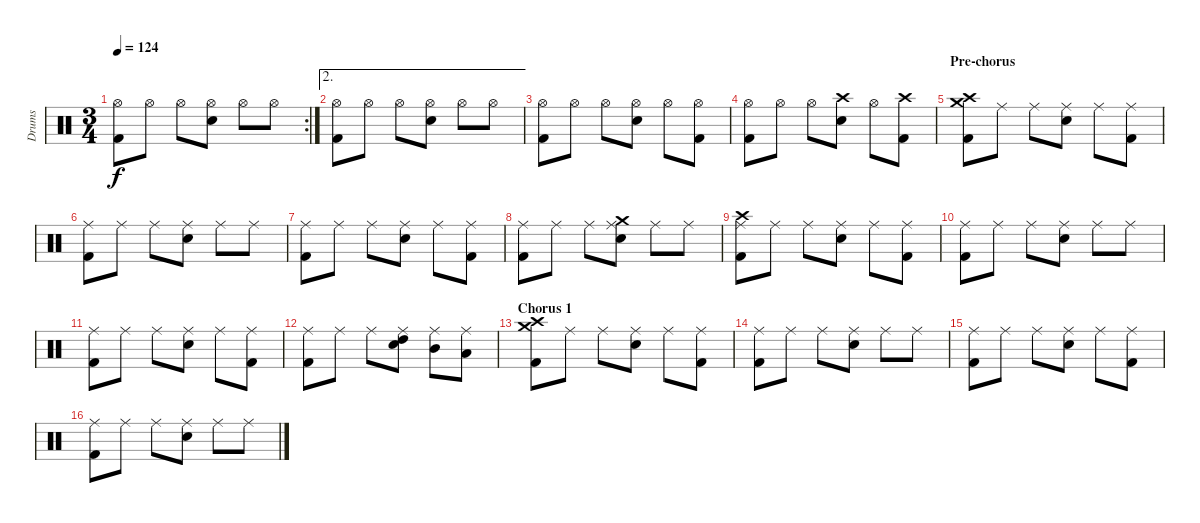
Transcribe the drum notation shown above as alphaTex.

\track ("Drums" "Drums") {instrument percussion}
\staff {score}
\articulation defaults
\rc 2
\ts (3 4)
\tempo 124
\clef neutral
\ks c
("Hi-Hat (open)" "Kick (hit) 2").8{dy f} "Hi-Hat (open)".8 "Hi-Hat (open)".8 ("Hi-Hat (open)" "Electric Snare (hit)").8 "Hi-Hat (open)".8 "Hi-Hat (open)".8 |
\ae 2
("Hi-Hat (open)" "Kick (hit) 2").8 "Hi-Hat (open)".8 "Hi-Hat (open)".8 ("Hi-Hat (open)" "Electric Snare (hit)").8 "Hi-Hat (open)".8 "Hi-Hat (open)".8 |
("Hi-Hat (open)" "Kick (hit) 2").8 "Hi-Hat (open)".8 "Hi-Hat (open)".8 ("Hi-Hat (open)" "Electric Snare (hit)").8 "Hi-Hat (open)".8 ("Hi-Hat (open)" "Kick (hit) 2").8 |
("Hi-Hat (open)" "Kick (hit) 2").8 "Hi-Hat (open)".8 "Hi-Hat (open)".8 ("Crash high (hit)" "Electric Snare (hit)").8 "Hi-Hat (open)".8 ("Crash high (hit)" "Kick (hit) 2").8 |
\section ("" "Pre-chorus")
("Crash medium (hit)" "Crash high (hit)" "Kick (hit) 2").8 "Ride (middle)".8 "Ride (middle)".8 ("Ride (middle)" "Electric Snare (hit)").8 "Ride (middle)".8 ("Ride (middle)" "Kick (hit) 2").8 |
("Ride (middle)" "Kick (hit) 2").8 "Ride (middle)".8 "Ride (middle)".8 ("Ride (middle)" "Electric Snare (hit)").8 "Ride (middle)".8 "Ride (middle)".8 |
("Ride (middle)" "Kick (hit) 2").8 "Ride (middle)".8 "Ride (middle)".8 ("Ride (middle)" "Electric Snare (hit)").8 "Ride (middle)".8 ("Ride (middle)" "Kick (hit) 2").8 |
("Ride (middle)" "Kick (hit) 2").8 "Ride (middle)".8 "Ride (middle)".8 ("Ride (middle)" "Crash medium (hit)" "Electric Snare (hit)").8 "Ride (middle)".8 "Ride (middle)".8 |
("Ride (middle)" "Crash high (hit)" "Kick (hit) 2").8 "Ride (middle)".8 "Ride (middle)".8 ("Ride (middle)" "Electric Snare (hit)").8 "Ride (middle)".8 ("Ride (middle)" "Kick (hit) 2").8 |
("Ride (middle)" "Kick (hit) 2").8 "Ride (middle)".8 "Ride (middle)".8 ("Ride (middle)" "Electric Snare (hit)").8 "Ride (middle)".8 "Ride (middle)".8 |
("Ride (middle)" "Kick (hit) 2").8 "Ride (middle)".8 "Ride (middle)".8 ("Ride (middle)" "Electric Snare (hit)").8 "Ride (middle)".8 ("Ride (middle)" "Kick (hit) 2").8 |
("Ride (middle)" "Kick (hit) 2").8 "Ride (middle)".8 "Ride (middle)".8 ("Ride (middle)" "High Tom (hit)" "Electric Snare (hit)").8 ("Ride (middle)" "Mid Tom (hit)").8 ("Ride (middle)" "Low Tom (hit)").8 |
\section ("" "Chorus 1")
("Crash high (hit)" "Crash medium (hit)" "Kick (hit) 2").8 "Ride (middle)".8 "Ride (middle)".8 ("Ride (middle)" "Electric Snare (hit)").8 "Ride (middle)".8 ("Ride (middle)" "Kick (hit) 2").8 |
("Ride (middle)" "Kick (hit) 2").8 "Ride (middle)".8 "Ride (middle)".8 ("Ride (middle)" "Electric Snare (hit)").8 "Ride (middle)".8 "Ride (middle)".8 |
("Ride (middle)" "Kick (hit) 2").8 "Ride (middle)".8 "Ride (middle)".8 ("Ride (middle)" "Electric Snare (hit)").8 "Ride (middle)".8 ("Ride (middle)" "Kick (hit) 2").8 |
("Ride (middle)" "Kick (hit) 2").8 "Ride (middle)".8 "Ride (middle)".8 ("Ride (middle)" "Electric Snare (hit)").8 "Ride (middle)".8 "Ride (middle)".8
